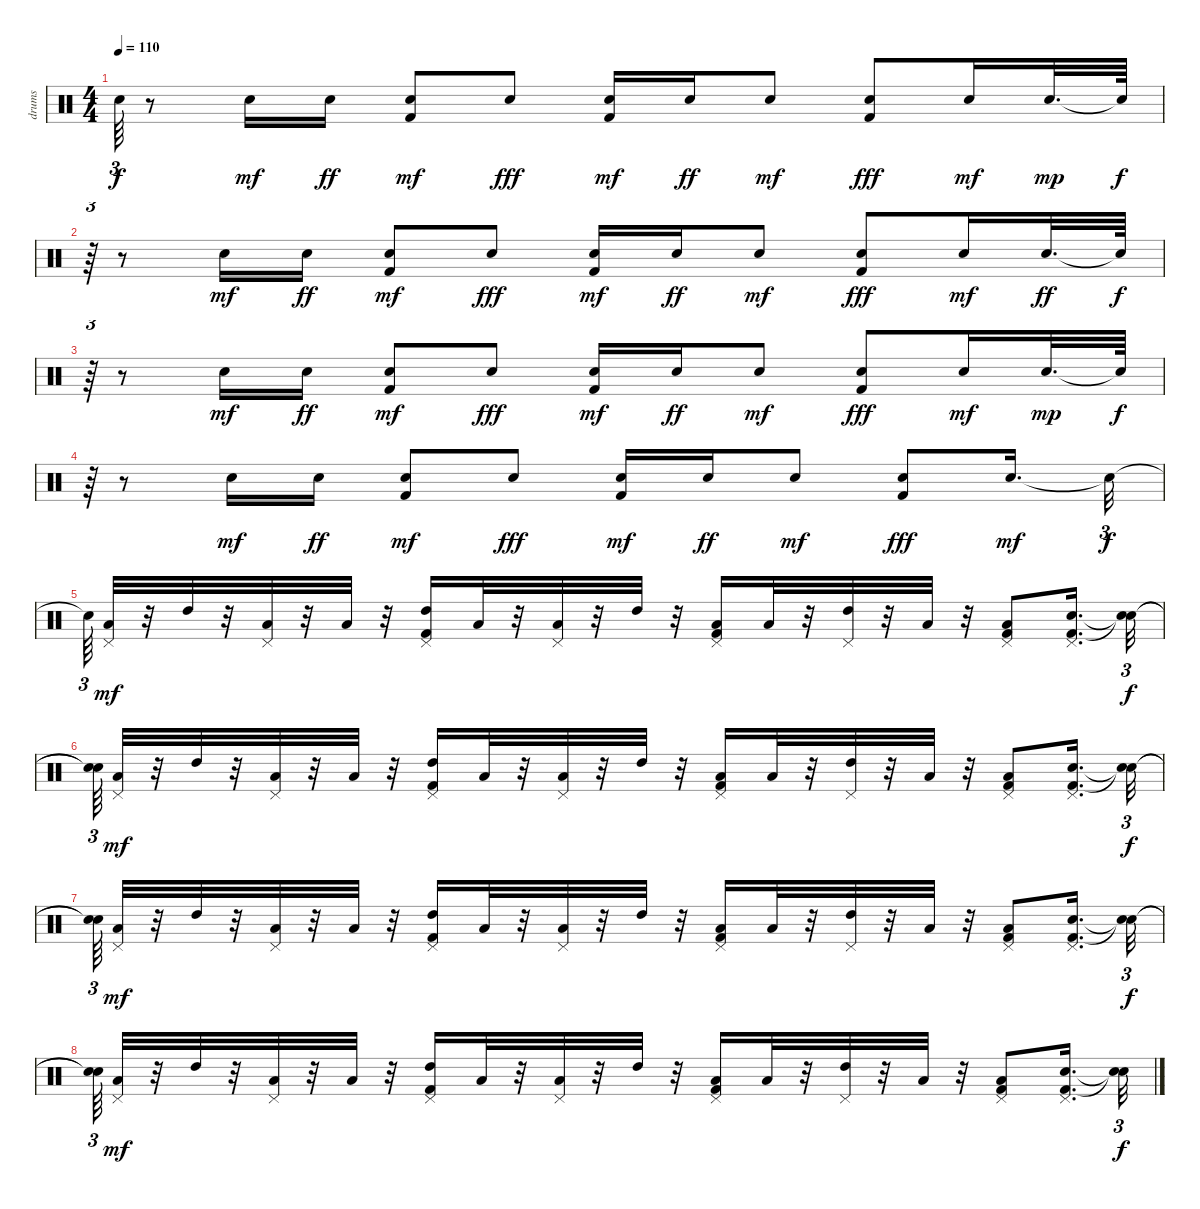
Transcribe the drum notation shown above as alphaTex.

\track ("drums               " "drums     ") {instrument percussion}
\staff {score}
\articulation defaults
\ts (4 4)
\tempo 110
\clef neutral
\ks c "Snare (hit)"{t}.64{tu (3 2) dy f}
r.8 "Snare (hit) 2".16{dy mf} "Snare (hit) 2".16{dy ff} ("Kick (hit) 2" "Snare (hit) 2").8{dy mf} "Snare (hit) 2".8{dy fff} ("Kick (hit) 2" "Snare (hit) 2").16{dy mf} "Snare (hit) 2".16{dy ff} "Snare (hit) 2".8{dy mf} ("Kick (hit) 2" "Snare (hit) 2").8{dy fff} "Snare (hit) 2".16{dy mf} "Snare (hit) 2".32{d dy mp} "Snare (hit)"{t}.64{dy f} |
r.64{tu (3 2)} r.8 "Snare (hit) 2".16{dy mf} "Snare (hit) 2".16{dy ff} ("Kick (hit) 2" "Snare (hit) 2").8{dy mf} "Snare (hit) 2".8{dy fff} ("Kick (hit) 2" "Snare (hit) 2").16{dy mf} "Snare (hit) 2".16{dy ff} "Snare (hit) 2".8{dy mf} ("Kick (hit) 2" "Snare (hit) 2").8{dy fff} "Snare (hit) 2".16{dy mf} "Snare (hit) 2".32{d dy ff} "Snare (hit)"{t}.64{dy f} |
r.64{tu (3 2)} r.8 "Snare (hit) 2".16{dy mf} "Snare (hit) 2".16{dy ff} ("Kick (hit) 2" "Snare (hit) 2").8{dy mf} "Snare (hit) 2".8{dy fff} ("Kick (hit) 2" "Snare (hit) 2").16{dy mf} "Snare (hit) 2".16{dy ff} "Snare (hit) 2".8{dy mf} ("Kick (hit) 2" "Snare (hit) 2").8{dy fff} "Snare (hit) 2".16{dy mf} "Snare (hit) 2".32{d dy mp} "Snare (hit)"{t}.64{dy f} |
r.64{tu (3 2)} r.8 "Snare (hit) 2".16{dy mf} "Snare (hit) 2".16{dy ff} ("Kick (hit) 2" "Snare (hit) 2").8{dy mf} "Snare (hit) 2".8{dy fff} ("Kick (hit) 2" "Snare (hit) 2").16{dy mf} "Snare (hit) 2".16{dy ff} "Snare (hit) 2".8{dy mf} ("Kick (hit) 2" "Snare (hit) 2").8{dy fff} "Snare (hit) 2".16{d dy mf} "Snare (hit)"{t}.32{tu (3 2) dy f} |
"Snare (hit)"{t}.64{tu (3 2)} ("Pedal Hi-Hat (hit)" "Low Floor Tom (hit)").32{dy mf} r.32 "High Tom (hit)".32 r.32 ("Pedal Hi-Hat (hit)" "Low Tom (hit)").32 r.32 "Low Floor Tom (hit)".32 r.32 ("Kick (hit) 2" "Pedal Hi-Hat (hit)" "High Tom (hit)").16 "Low Tom (hit)".32 r.32 ("Low Floor Tom (hit)" "Pedal Hi-Hat (hit)").32 r.32 "High Tom (hit)".32 r.32 ("Kick (hit) 2" "Pedal Hi-Hat (hit)" "Low Tom (hit)").16 "Low Floor Tom (hit)".32 r.32 ("Pedal Hi-Hat (hit)" "High Tom (hit)").32 r.32 "Low Tom (hit)".32 r.32 ("Kick (hit) 2" "Low Floor Tom (hit)" "Pedal Hi-Hat (hit)").8 ("Snare (hit) 2" "Kick (hit) 2" "Pedal Hi-Hat (hit)").16{d} ("Snare (hit)"{t} "Snare (hit)"{t}).32{tu (3 2) dy f} |
("Snare (hit)"{t} "Snare (hit)"{t}).64{tu (3 2)} ("Pedal Hi-Hat (hit)" "Low Floor Tom (hit)").32{dy mf} r.32 "High Tom (hit)".32 r.32 ("Pedal Hi-Hat (hit)" "Low Tom (hit)").32 r.32 "Low Floor Tom (hit)".32 r.32 ("Kick (hit) 2" "Pedal Hi-Hat (hit)" "High Tom (hit)").16 "Low Tom (hit)".32 r.32 ("Low Floor Tom (hit)" "Pedal Hi-Hat (hit)").32 r.32 "High Tom (hit)".32 r.32 ("Kick (hit) 2" "Pedal Hi-Hat (hit)" "Low Tom (hit)").16 "Low Floor Tom (hit)".32 r.32 ("Pedal Hi-Hat (hit)" "High Tom (hit)").32 r.32 "Low Tom (hit)".32 r.32 ("Kick (hit) 2" "Low Floor Tom (hit)" "Pedal Hi-Hat (hit)").8 ("Snare (hit) 2" "Kick (hit) 2" "Pedal Hi-Hat (hit)").16{d} ("Snare (hit)"{t} "Snare (hit)"{t}).32{tu (3 2) dy f} |
("Snare (hit)"{t} "Snare (hit)"{t}).64{tu (3 2)} ("Pedal Hi-Hat (hit)" "Low Floor Tom (hit)").32{dy mf} r.32 "High Tom (hit)".32 r.32 ("Pedal Hi-Hat (hit)" "Low Tom (hit)").32 r.32 "Low Floor Tom (hit)".32 r.32 ("Kick (hit) 2" "Pedal Hi-Hat (hit)" "High Tom (hit)").16 "Low Tom (hit)".32 r.32 ("Low Floor Tom (hit)" "Pedal Hi-Hat (hit)").32 r.32 "High Tom (hit)".32 r.32 ("Kick (hit) 2" "Pedal Hi-Hat (hit)" "Low Tom (hit)").16 "Low Floor Tom (hit)".32 r.32 ("Pedal Hi-Hat (hit)" "High Tom (hit)").32 r.32 "Low Tom (hit)".32 r.32 ("Kick (hit) 2" "Low Floor Tom (hit)" "Pedal Hi-Hat (hit)").8 ("Snare (hit) 2" "Kick (hit) 2" "Pedal Hi-Hat (hit)").16{d} ("Snare (hit)"{t} "Snare (hit)"{t}).32{tu (3 2) dy f} |
("Snare (hit)"{t} "Snare (hit)"{t}).64{tu (3 2)} ("Pedal Hi-Hat (hit)" "Low Floor Tom (hit)").32{dy mf} r.32 "High Tom (hit)".32 r.32 ("Pedal Hi-Hat (hit)" "Low Tom (hit)").32 r.32 "Low Floor Tom (hit)".32 r.32 ("Kick (hit) 2" "Pedal Hi-Hat (hit)" "High Tom (hit)").16 "Low Tom (hit)".32 r.32 ("Low Floor Tom (hit)" "Pedal Hi-Hat (hit)").32 r.32 "High Tom (hit)".32 r.32 ("Kick (hit) 2" "Pedal Hi-Hat (hit)" "Low Tom (hit)").16 "Low Floor Tom (hit)".32 r.32 ("Pedal Hi-Hat (hit)" "High Tom (hit)").32 r.32 "Low Tom (hit)".32 r.32 ("Kick (hit) 2" "Low Floor Tom (hit)" "Pedal Hi-Hat (hit)").8 ("Snare (hit) 2" "Kick (hit) 2" "Pedal Hi-Hat (hit)").16{d} ("Snare (hit)"{t} "Snare (hit)"{t}).32{tu (3 2) dy f}
